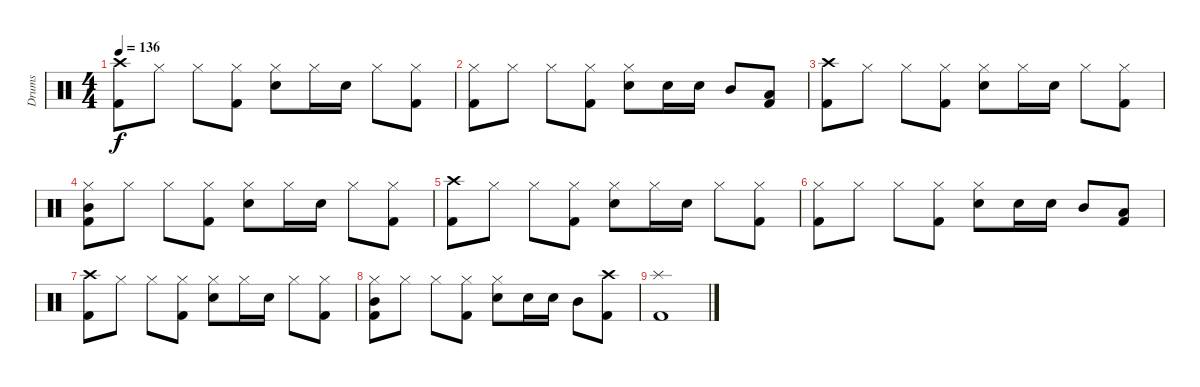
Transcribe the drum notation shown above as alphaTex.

\track ("Drums" "Drums") {instrument percussion}
\staff {score}
\articulation defaults
\ts (4 4)
\tempo 136
\clef neutral
\ks c
("Crash high (hit)" "Kick (hit) 2").8{dy f} "Hi-Hat (closed)".8 "Hi-Hat (closed)".8 ("Hi-Hat (closed)" "Kick (hit) 2").8 ("Hi-Hat (closed)" "Electric Snare (hit)").8 "Hi-Hat (closed)".16 "Electric Snare (hit)".16 "Hi-Hat (closed)".8 ("Hi-Hat (closed)" "Kick (hit) 2").8 |
("Hi-Hat (closed)" "Kick (hit) 2").8 "Hi-Hat (closed)".8 "Hi-Hat (closed)".8 ("Hi-Hat (closed)" "Kick (hit) 2").8 ("Hi-Hat (closed)" "Electric Snare (hit)").8 "Electric Snare (hit)".16 "Electric Snare (hit)".16 "Mid Tom (hit)".8 ("Low Tom (hit)" "Kick (hit) 2").8 |
("Crash high (hit)" "Kick (hit) 2").8 "Hi-Hat (closed)".8 "Hi-Hat (closed)".8 ("Hi-Hat (closed)" "Kick (hit) 2").8 ("Hi-Hat (closed)" "Electric Snare (hit)").8 "Hi-Hat (closed)".16 "Electric Snare (hit)".16 "Hi-Hat (closed)".8 ("Hi-Hat (closed)" "Kick (hit) 2").8 |
("Hi-Hat (closed)" "Mid Tom (hit)" "Kick (hit) 2").8 "Hi-Hat (closed)".8 "Hi-Hat (closed)".8 ("Hi-Hat (closed)" "Kick (hit) 2").8 ("Hi-Hat (closed)" "Electric Snare (hit)").8 "Hi-Hat (closed)".16 "Electric Snare (hit)".16 "Hi-Hat (closed)".8 ("Hi-Hat (closed)" "Kick (hit) 2").8 |
("Crash high (hit)" "Kick (hit) 2").8 "Hi-Hat (closed)".8 "Hi-Hat (closed)".8 ("Hi-Hat (closed)" "Kick (hit) 2").8 ("Hi-Hat (closed)" "Electric Snare (hit)").8 "Hi-Hat (closed)".16 "Electric Snare (hit)".16 "Hi-Hat (closed)".8 ("Hi-Hat (closed)" "Kick (hit) 2").8 |
("Hi-Hat (closed)" "Kick (hit) 2").8 "Hi-Hat (closed)".8 "Hi-Hat (closed)".8 ("Hi-Hat (closed)" "Kick (hit) 2").8 ("Hi-Hat (closed)" "Electric Snare (hit)").8 "Electric Snare (hit)".16 "Electric Snare (hit)".16 "Mid Tom (hit)".8 ("Low Tom (hit)" "Kick (hit) 2").8 |
("Crash high (hit)" "Kick (hit) 2").8 "Hi-Hat (closed)".8 "Hi-Hat (closed)".8 ("Hi-Hat (closed)" "Kick (hit) 2").8 ("Hi-Hat (closed)" "Electric Snare (hit)").8 "Hi-Hat (closed)".16 "Electric Snare (hit)".16 "Hi-Hat (closed)".8 ("Hi-Hat (closed)" "Kick (hit) 2").8 |
("Hi-Hat (closed)" "Mid Tom (hit)" "Kick (hit) 2").8 "Hi-Hat (closed)".8 "Hi-Hat (closed)".8 ("Hi-Hat (closed)" "Kick (hit) 2").8 ("Hi-Hat (closed)" "Electric Snare (hit)").8 "Electric Snare (hit)".16 "Electric Snare (hit)".16 "Mid Tom (hit)".8 ("Crash high (hit)" "Kick (hit) 2").8 |
("Splash (hit)" "Kick (hit) 2").1
